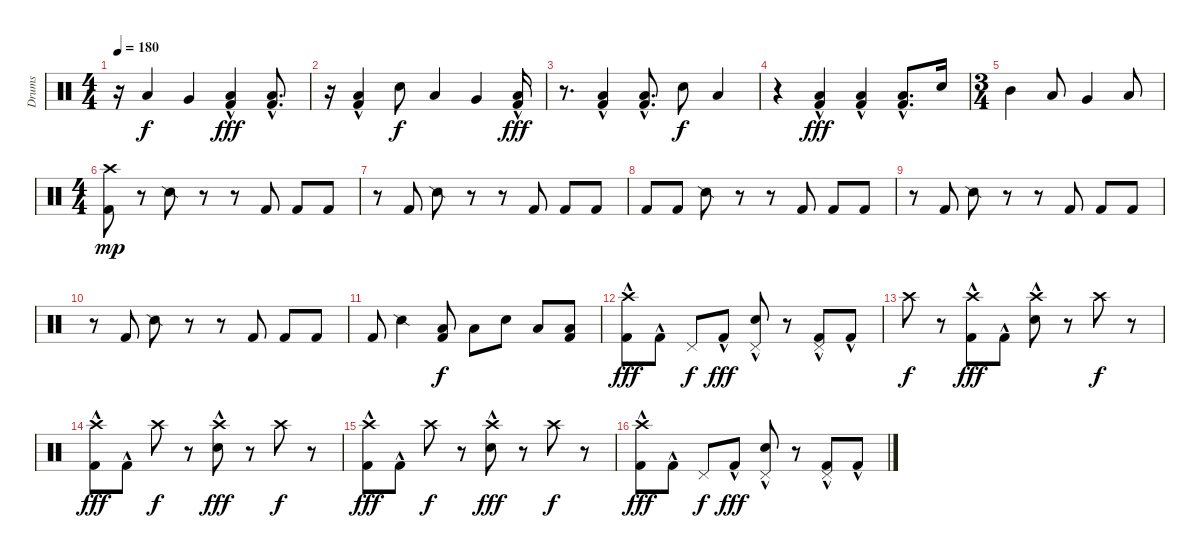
\track ("Drums" "Drums") {instrument percussion}
\staff {score}
\articulation defaults
\ts (4 4)
\tempo 180
\clef neutral
\ks c
r.16{dy f} "Low Tom (hit)".4 "Very Low Tom (hit)".4 ("Low Tom (hit)" "Kick (hit) 2"{hac}).4{dy fff} ("Low Tom (hit)" "Kick (hit) 2"{hac}).8{d} |
r.16 ("Low Tom (hit)" "Kick (hit) 2"{hac}).4 "Snare (hit) 2".8{dy f} "Low Tom (hit)".4 "Very Low Tom (hit)".4 ("Low Tom (hit)" "Kick (hit) 2"{hac}).16{dy fff} |
r.8{d} ("Low Tom (hit)" "Kick (hit) 2"{hac}).4 ("Low Tom (hit)" "Kick (hit) 2"{hac}).8{d} "Snare (hit) 2".8{dy f} "Low Tom (hit)".4 |
r.4 ("Low Tom (hit)" "Kick (hit) 2"{hac}).4{dy fff} ("Low Tom (hit)" "Kick (hit) 2"{hac}).4 ("Low Tom (hit)" "Kick (hit) 2"{hac}).8{d} "Snare (hit) 2".16 |
\ts (3 4)
"Mid Tom (hit)".4 "Low Tom (hit)".8 "Very Low Tom (hit)".4 "Low Floor Tom (hit)".8 |
\ts (4 4)
("Crash high (hit)" "Kick (hit) 2").8{dy mp} r.8 "Snare (side stick) 2".8 r.8 r.8 "Kick (hit) 2".8 "Kick (hit) 2".8 "Kick (hit) 2".8 |
r.8 "Kick (hit) 2".8 "Snare (side stick) 2".8 r.8 r.8 "Kick (hit) 2".8 "Kick (hit) 2".8 "Kick (hit) 2".8 |
"Kick (hit) 2".8 "Kick (hit) 2".8 "Snare (side stick) 2".8 r.8 r.8 "Kick (hit) 2".8 "Kick (hit) 2".8 "Kick (hit) 2".8 |
r.8 "Kick (hit) 2".8 "Snare (side stick) 2".8 r.8 r.8 "Kick (hit) 2".8 "Kick (hit) 2".8 "Kick (hit) 2".8 |
r.8 "Kick (hit) 2".8 "Snare (side stick) 2".8 r.8 r.8 "Kick (hit) 2".8 "Kick (hit) 2".8 "Kick (hit) 2".8 |
"Kick (hit) 2".8 "Snare (side stick) 2".4 ("Low Tom (hit)" "Kick (hit) 2").8{dy f} "Low Tom (hit)".8 "Snare (hit) 2".8 "Low Floor Tom (hit)".8 ("Low Tom (hit)" "Kick (hit) 2").8 |
("Crash high (hit)"{hac} "Kick (hit) 2"{hac}).8{dy fff} "Kick (hit) 2"{hac}.8 "Pedal Hi-Hat (hit)".8{dy f} "Kick (hit) 2"{hac}.8{dy fff} ("Pedal Hi-Hat (hit)" "Snare (hit) 2"{hac}).8 r.8 ("Pedal Hi-Hat (hit)" "Kick (hit) 2"{hac}).8 "Kick (hit) 2"{hac}.8 |
"Crash high (hit)".8{dy f} r.8 ("Crash high (hit)" "Kick (hit) 2"{hac}).8{dy fff} "Kick (hit) 2"{hac}.8 ("Crash high (hit)" "Snare (hit) 2"{hac}).8 r.8 "Crash high (hit)".8{dy f} r.8 |
("Crash high (hit)" "Kick (hit) 2"{hac}).8{dy fff} "Kick (hit) 2"{hac}.8 "Crash high (hit)".8{dy f} r.8 ("Crash high (hit)" "Snare (hit) 2"{hac}).8{dy fff} r.8 "Crash high (hit)".8{dy f} r.8 |
("Crash high (hit)" "Kick (hit) 2"{hac}).8{dy fff} "Kick (hit) 2"{hac}.8 "Crash high (hit)".8{dy f} r.8 ("Crash high (hit)" "Snare (hit) 2"{hac}).8{dy fff} r.8 "Crash high (hit)".8{dy f} r.8 |
("Crash high (hit)"{hac} "Kick (hit) 2"{hac}).8{dy fff} "Kick (hit) 2"{hac}.8 "Pedal Hi-Hat (hit)".8{dy f} "Kick (hit) 2"{hac}.8{dy fff} ("Pedal Hi-Hat (hit)" "Snare (hit) 2"{hac}).8 r.8 ("Pedal Hi-Hat (hit)" "Kick (hit) 2"{hac}).8 "Kick (hit) 2"{hac}.8
